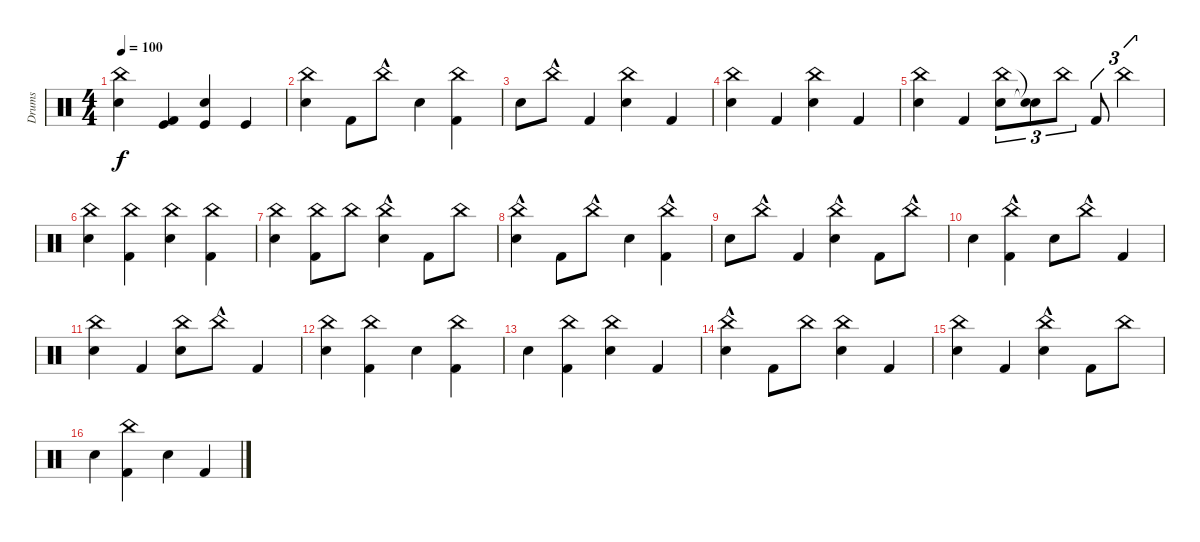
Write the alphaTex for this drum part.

\track ("Drums" "Drums") {instrument percussion}
\staff {score}
\articulation defaults
\ts (4 4)
\tempo 100
\clef neutral
\ks c
("China (hit)" "Snare (hit) 2").4{dy f} ("Kick (hit) 2" "Kick (hit)").4 ("Snare (hit) 2" "Kick (hit)").4 "Kick (hit)".4 |
("China (hit)" "Snare (hit) 2").4 "Kick (hit) 2".8 "China (hit)"{hac}.8 "Snare (hit) 2".4 ("China (hit)" "Kick (hit) 2").4 |
"Snare (hit) 2".8 "China (hit)"{hac}.8 "Kick (hit) 2".4 ("China (hit)" "Snare (hit) 2").4 "Kick (hit) 2".4 |
("China (hit)" "Snare (hit) 2").4 "Kick (hit) 2".4 ("China (hit)" "Snare (hit) 2").4 "Kick (hit) 2".4 |
("China (hit)" "Snare (hit) 2").4 "Kick (hit) 2".4 ("China (hit)" "Snare (hit) 2").8{tu (3 2)} ("Snare (hit)"{t} "Snare (hit)"{t}).8{tu (3 2)} "China (hit)".8{tu (3 2)} "Kick (hit) 2".8{tu (3 2)} "China (hit)".4{tu (3 2)} |
("China (hit)" "Snare (hit) 2").4 ("China (hit)" "Kick (hit) 2").4 ("China (hit)" "Snare (hit) 2").4 ("China (hit)" "Kick (hit) 2").4 |
("China (hit)" "Snare (hit) 2").4 ("China (hit)" "Kick (hit) 2").8 "China (hit)".8 ("China (hit)"{hac} "Snare (hit) 2").4 "Kick (hit) 2".8 "China (hit)".8 |
("China (hit)"{hac} "Snare (hit) 2").4 "Kick (hit) 2".8 "China (hit)"{hac}.8 "Snare (hit) 2".4 ("China (hit)"{hac} "Kick (hit) 2").4 |
"Snare (hit) 2".8 "China (hit)"{hac}.8 "Kick (hit) 2".4 ("China (hit)"{hac} "Snare (hit) 2").4 "Kick (hit) 2".8 "China (hit)"{hac}.8 |
"Snare (hit) 2".4 ("Kick (hit) 2" "China (hit)"{hac}).4 "Snare (hit) 2".8 "China (hit)"{hac}.8 "Kick (hit) 2".4 |
("China (hit)" "Snare (hit) 2").4 "Kick (hit) 2".4 ("China (hit)" "Snare (hit) 2").8 "China (hit)"{hac}.8 "Kick (hit) 2".4 |
("China (hit)" "Snare (hit) 2").4 ("China (hit)" "Kick (hit) 2").4 "Snare (hit) 2".4 ("China (hit)" "Kick (hit) 2").4 |
"Snare (hit) 2".4 ("China (hit)" "Kick (hit) 2").4 ("China (hit)" "Snare (hit) 2").4 "Kick (hit) 2".4 |
("China (hit)"{hac} "Snare (hit) 2").4 "Kick (hit) 2".8 "China (hit)".8 ("China (hit)" "Snare (hit) 2").4 "Kick (hit) 2".4 |
("China (hit)" "Snare (hit) 2").4 "Kick (hit) 2".4 ("China (hit)"{hac} "Snare (hit) 2").4 "Kick (hit) 2".8 "China (hit)".8 |
"Snare (hit) 2".4 ("China (hit)" "Kick (hit) 2").4 "Snare (hit) 2".4 "Kick (hit) 2".4
